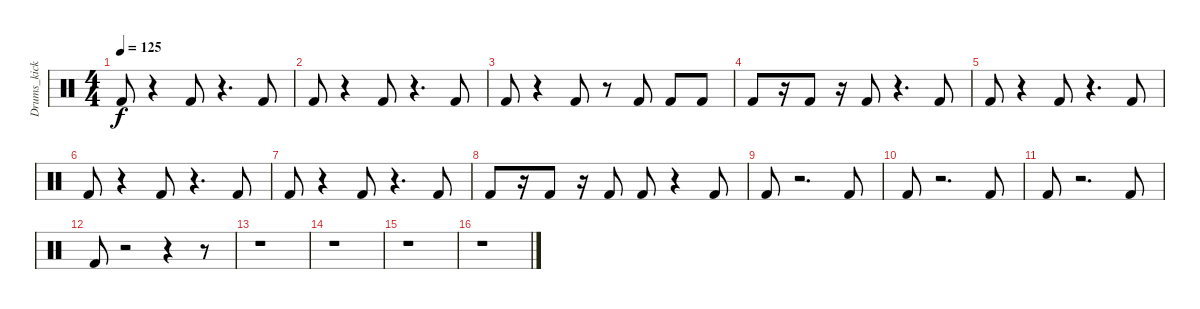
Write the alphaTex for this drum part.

\track ("Drums_kick" "Drums_kick") {instrument percussion}
\staff {score}
\articulation defaults
\ts (4 4)
\tempo 125
\clef neutral
\ks c "Kick (hit) 2".8{dy f}
r.4 "Kick (hit) 2".8 r.4{d} "Kick (hit) 2".8 |
"Kick (hit) 2".8 r.4 "Kick (hit) 2".8 r.4{d} "Kick (hit) 2".8 |
"Kick (hit) 2".8 r.4 "Kick (hit) 2".8 r.8 "Kick (hit) 2".8 "Kick (hit) 2".8 "Kick (hit) 2".8 |
"Kick (hit) 2".8 r.16 "Kick (hit) 2".8 r.16 "Kick (hit) 2".8 r.4{d} "Kick (hit) 2".8 |
"Kick (hit) 2".8 r.4 "Kick (hit) 2".8 r.4{d} "Kick (hit) 2".8 |
"Kick (hit) 2".8 r.4 "Kick (hit) 2".8 r.4{d} "Kick (hit) 2".8 |
"Kick (hit) 2".8 r.4 "Kick (hit) 2".8 r.4{d} "Kick (hit) 2".8 |
"Kick (hit) 2".8 r.16 "Kick (hit) 2".8 r.16 "Kick (hit) 2".8 "Kick (hit) 2".8 r.4 "Kick (hit) 2".8 |
"Kick (hit) 2".8 r.2{d} "Kick (hit) 2".8 |
"Kick (hit) 2".8 r.2{d} "Kick (hit) 2".8 |
"Kick (hit) 2".8 r.2{d} "Kick (hit) 2".8 |
"Kick (hit) 2".8 r.2 r.4 r.8 |
r.1 |
r.1 |
r.1 |
r.1
